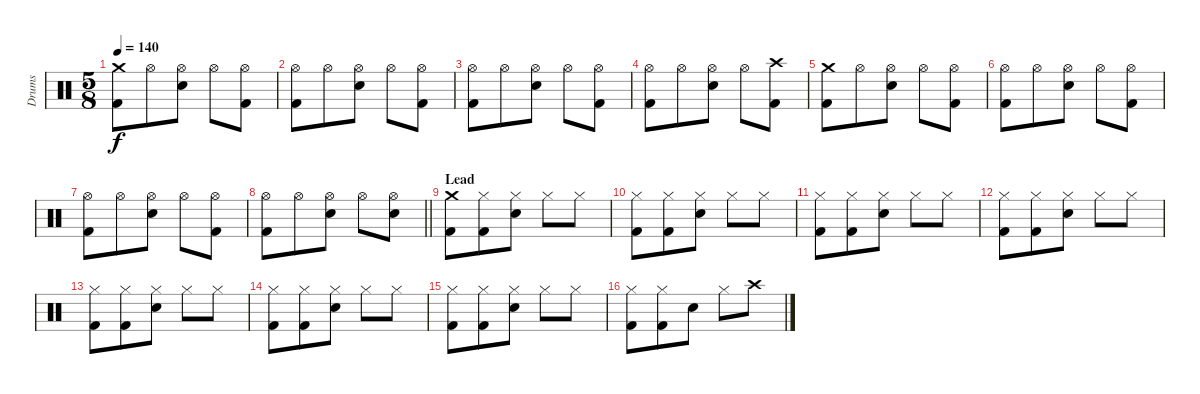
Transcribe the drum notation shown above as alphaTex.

\track ("Drums" "Drums") {instrument percussion}
\staff {score}
\articulation defaults
\ts (5 8)
\tempo 140
\clef neutral
\ks c
("Crash medium (hit)" "Kick (hit) 2").8{dy f} "Hi-Hat (open)".8 ("Hi-Hat (open)" "Electric Snare (hit)").8 "Hi-Hat (open)".8 ("Hi-Hat (open)" "Kick (hit) 2").8 |
("Hi-Hat (open)" "Kick (hit) 2").8 "Hi-Hat (open)".8 ("Hi-Hat (open)" "Electric Snare (hit)").8 "Hi-Hat (open)".8 ("Hi-Hat (open)" "Kick (hit) 2").8 |
("Hi-Hat (open)" "Kick (hit) 2").8 "Hi-Hat (open)".8 ("Hi-Hat (open)" "Electric Snare (hit)").8 "Hi-Hat (open)".8 ("Hi-Hat (open)" "Kick (hit) 2").8 |
("Hi-Hat (open)" "Kick (hit) 2").8 "Hi-Hat (open)".8 ("Hi-Hat (open)" "Electric Snare (hit)").8 "Hi-Hat (open)".8 ("Crash high (hit)" "Kick (hit) 2").8 |
("Crash medium (hit)" "Kick (hit) 2").8 "Hi-Hat (open)".8 ("Hi-Hat (open)" "Electric Snare (hit)").8 "Hi-Hat (open)".8 ("Hi-Hat (open)" "Kick (hit) 2").8 |
("Hi-Hat (open)" "Kick (hit) 2").8 "Hi-Hat (open)".8 ("Hi-Hat (open)" "Electric Snare (hit)").8 "Hi-Hat (open)".8 ("Hi-Hat (open)" "Kick (hit) 2").8 |
("Hi-Hat (open)" "Kick (hit) 2").8 "Hi-Hat (open)".8 ("Hi-Hat (open)" "Electric Snare (hit)").8 "Hi-Hat (open)".8 ("Hi-Hat (open)" "Kick (hit) 2").8 |
\barLineRight lightlight
("Hi-Hat (open)" "Kick (hit) 2").8 "Hi-Hat (open)".8 ("Hi-Hat (open)" "Electric Snare (hit)").8 "Hi-Hat (open)".8 ("Hi-Hat (open)" "Electric Snare (hit)").8 |
\section ("" "Lead")
("Crash medium (hit)" "Kick (hit) 2").8 ("Hi-Hat (closed)" "Kick (hit) 2").8 ("Hi-Hat (closed)" "Electric Snare (hit)").8 "Hi-Hat (closed)".8 "Hi-Hat (closed)".8 |
("Hi-Hat (closed)" "Kick (hit) 2").8 ("Hi-Hat (closed)" "Kick (hit) 2").8 ("Hi-Hat (closed)" "Electric Snare (hit)").8 "Hi-Hat (closed)".8 "Hi-Hat (closed)".8 |
("Hi-Hat (closed)" "Kick (hit) 2").8 ("Hi-Hat (closed)" "Kick (hit) 2").8 ("Hi-Hat (closed)" "Electric Snare (hit)").8 "Hi-Hat (closed)".8 "Hi-Hat (closed)".8 |
("Hi-Hat (closed)" "Kick (hit) 2").8 ("Hi-Hat (closed)" "Kick (hit) 2").8 ("Hi-Hat (closed)" "Electric Snare (hit)").8 "Hi-Hat (closed)".8 "Hi-Hat (closed)".8 |
("Hi-Hat (closed)" "Kick (hit) 2").8 ("Hi-Hat (closed)" "Kick (hit) 2").8 ("Hi-Hat (closed)" "Electric Snare (hit)").8 "Hi-Hat (closed)".8 "Hi-Hat (closed)".8 |
("Hi-Hat (closed)" "Kick (hit) 2").8 ("Hi-Hat (closed)" "Kick (hit) 2").8 ("Hi-Hat (closed)" "Electric Snare (hit)").8 "Hi-Hat (closed)".8 "Hi-Hat (closed)".8 |
("Hi-Hat (closed)" "Kick (hit) 2").8 ("Hi-Hat (closed)" "Kick (hit) 2").8 ("Hi-Hat (closed)" "Electric Snare (hit)").8 "Hi-Hat (closed)".8 "Hi-Hat (closed)".8 |
("Hi-Hat (closed)" "Kick (hit) 2").8 ("Hi-Hat (closed)" "Kick (hit) 2").8 "Electric Snare (hit)".8 "Hi-Hat (closed)".8 "Crash high (hit)".8
